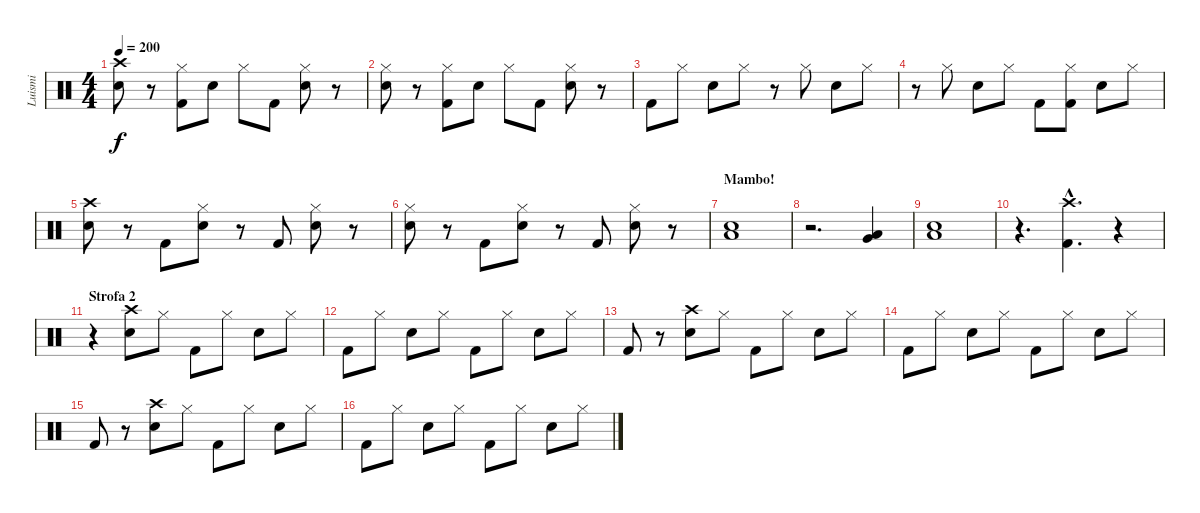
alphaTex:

\track ("Luismi" "Luismi") {instrument percussion}
\staff {score}
\articulation defaults
\ts (4 4)
\tempo 200
\clef neutral
\ks c
("Crash high (hit)" "Electric Snare (hit)").8{dy f} r.8 ("Hi-Hat (closed)" "Kick (hit) 2").8 "Electric Snare (hit)".8 "Hi-Hat (closed)".8 "Kick (hit) 2".8 ("Hi-Hat (closed)" "Electric Snare (hit)").8 r.8 |
("Hi-Hat (closed)" "Electric Snare (hit)").8 r.8 ("Hi-Hat (closed)" "Kick (hit) 2").8 "Electric Snare (hit)".8 "Hi-Hat (closed)".8 "Kick (hit) 2".8 ("Hi-Hat (closed)" "Electric Snare (hit)").8 r.8 |
"Kick (hit) 2".8 "Hi-Hat (closed)".8 "Electric Snare (hit)".8 "Hi-Hat (closed)".8 r.8 "Hi-Hat (closed)".8 "Electric Snare (hit)".8 "Hi-Hat (closed)".8 |
r.8 "Hi-Hat (closed)".8 "Electric Snare (hit)".8 "Hi-Hat (closed)".8 "Kick (hit) 2".8 ("Hi-Hat (closed)" "Kick (hit) 2").8 "Electric Snare (hit)".8 "Hi-Hat (closed)".8 |
("Crash high (hit)" "Electric Snare (hit)").8 r.8 "Kick (hit) 2".8 ("Hi-Hat (closed)" "Electric Snare (hit)").8 r.8 "Kick (hit) 2".8 ("Hi-Hat (closed)" "Electric Snare (hit)").8 r.8 |
("Hi-Hat (closed)" "Electric Snare (hit)").8 r.8 "Kick (hit) 2".8 ("Hi-Hat (closed)" "Electric Snare (hit)").8 r.8 "Kick (hit) 2".8 ("Hi-Hat (closed)" "Electric Snare (hit)").8 r.8 |
\section ("" "Mambo!")
("Low Floor Tom (hit)" "Snare (hit) 2").1 |
r.2{d} ("Very Low Tom (hit)" "Low Floor Tom (hit)").4 |
("Snare (hit) 2" "Low Floor Tom (hit)").1 |
r.4{d} ("Crash high (hit)"{hac} "Kick (hit) 2"{hac}).4{d} r.4 |
\section ("" "Strofa 2")
r.4 ("Electric Snare (hit)" "Crash high (hit)").8 "Hi-Hat (closed)".8 "Kick (hit) 2".8 "Hi-Hat (closed)".8 "Electric Snare (hit)".8 "Hi-Hat (closed)".8 |
"Kick (hit) 2".8 "Hi-Hat (closed)".8 "Electric Snare (hit)".8 "Hi-Hat (closed)".8 "Kick (hit) 2".8 "Hi-Hat (closed)".8 "Electric Snare (hit)".8 "Hi-Hat (closed)".8 |
"Kick (hit) 2".8 r.8 ("Electric Snare (hit)" "Crash high (hit)").8 "Hi-Hat (closed)".8 "Kick (hit) 2".8 "Hi-Hat (closed)".8 "Electric Snare (hit)".8 "Hi-Hat (closed)".8 |
"Kick (hit) 2".8 "Hi-Hat (closed)".8 "Electric Snare (hit)".8 "Hi-Hat (closed)".8 "Kick (hit) 2".8 "Hi-Hat (closed)".8 "Electric Snare (hit)".8 "Hi-Hat (closed)".8 |
"Kick (hit) 2".8 r.8 ("Electric Snare (hit)" "Crash high (hit)").8 "Hi-Hat (closed)".8 "Kick (hit) 2".8 "Hi-Hat (closed)".8 "Electric Snare (hit)".8 "Hi-Hat (closed)".8 |
"Kick (hit) 2".8 "Hi-Hat (closed)".8 "Electric Snare (hit)".8 "Hi-Hat (closed)".8 "Kick (hit) 2".8 "Hi-Hat (closed)".8 "Electric Snare (hit)".8 "Hi-Hat (closed)".8
